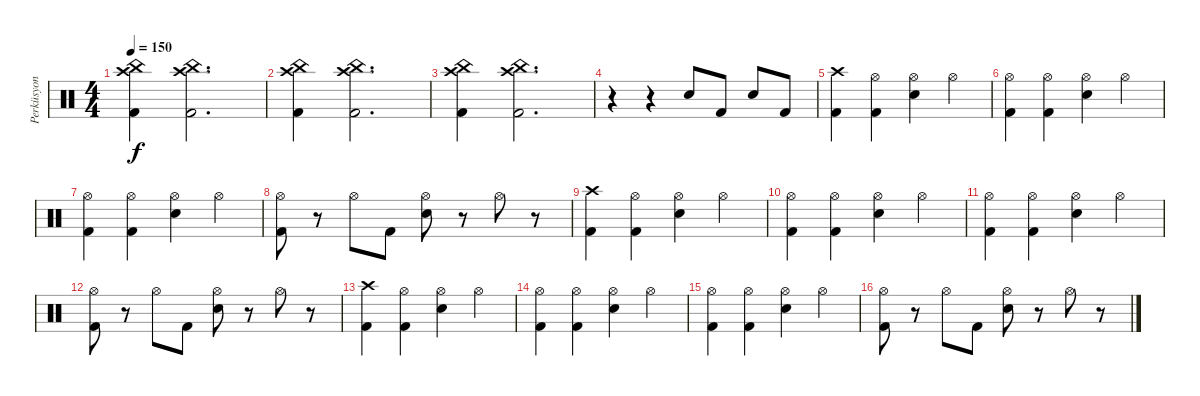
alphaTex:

\track ("Perküsyon" "Perküsyon") {instrument percussion}
\staff {score}
\articulation defaults
\ts (4 4)
\tempo 150
\clef neutral
\ks c
("Crash high (hit)" "China (hit)" "Kick (hit) 2").4{dy f} ("Crash high (hit)" "China (hit)" "Kick (hit) 2").2{d} |
("Crash high (hit)" "China (hit)" "Kick (hit) 2").4 ("Crash high (hit)" "China (hit)" "Kick (hit) 2").2{d} |
("Crash high (hit)" "China (hit)" "Kick (hit) 2").4 ("Crash high (hit)" "China (hit)" "Kick (hit) 2").2{d} |
r.4 r.4 "Electric Snare (hit)".8 "Kick (hit) 2".8 "Electric Snare (hit)".8 "Kick (hit) 2".8 |
("Crash high (hit)" "Kick (hit) 2").4 ("Hi-Hat (open)" "Kick (hit) 2").4 ("Hi-Hat (open)" "Electric Snare (hit)").4 "Hi-Hat (open)".4 |
("Hi-Hat (open)" "Kick (hit) 2").4 ("Hi-Hat (open)" "Kick (hit) 2").4 ("Hi-Hat (open)" "Electric Snare (hit)").4 "Hi-Hat (open)".4 |
("Hi-Hat (open)" "Kick (hit) 2").4 ("Hi-Hat (open)" "Kick (hit) 2").4 ("Hi-Hat (open)" "Electric Snare (hit)").4 "Hi-Hat (open)".4 |
("Hi-Hat (open)" "Kick (hit) 2").8 r.8 "Hi-Hat (open)".8 "Kick (hit) 2".8 ("Hi-Hat (open)" "Electric Snare (hit)").8 r.8 "Hi-Hat (open)".8 r.8 |
("Crash high (hit)" "Kick (hit) 2").4 ("Hi-Hat (open)" "Kick (hit) 2").4 ("Hi-Hat (open)" "Electric Snare (hit)").4 "Hi-Hat (open)".4 |
("Hi-Hat (open)" "Kick (hit) 2").4 ("Hi-Hat (open)" "Kick (hit) 2").4 ("Hi-Hat (open)" "Electric Snare (hit)").4 "Hi-Hat (open)".4 |
("Hi-Hat (open)" "Kick (hit) 2").4 ("Hi-Hat (open)" "Kick (hit) 2").4 ("Hi-Hat (open)" "Electric Snare (hit)").4 "Hi-Hat (open)".4 |
("Hi-Hat (open)" "Kick (hit) 2").8 r.8 "Hi-Hat (open)".8 "Kick (hit) 2".8 ("Hi-Hat (open)" "Electric Snare (hit)").8 r.8 "Hi-Hat (open)".8 r.8 |
("Crash high (hit)" "Kick (hit) 2").4 ("Hi-Hat (open)" "Kick (hit) 2").4 ("Hi-Hat (open)" "Electric Snare (hit)").4 "Hi-Hat (open)".4 |
("Hi-Hat (open)" "Kick (hit) 2").4 ("Hi-Hat (open)" "Kick (hit) 2").4 ("Hi-Hat (open)" "Electric Snare (hit)").4 "Hi-Hat (open)".4 |
("Hi-Hat (open)" "Kick (hit) 2").4 ("Hi-Hat (open)" "Kick (hit) 2").4 ("Hi-Hat (open)" "Electric Snare (hit)").4 "Hi-Hat (open)".4 |
("Hi-Hat (open)" "Kick (hit) 2").8 r.8 "Hi-Hat (open)".8 "Kick (hit) 2".8 ("Hi-Hat (open)" "Electric Snare (hit)").8 r.8 "Hi-Hat (open)".8 r.8
